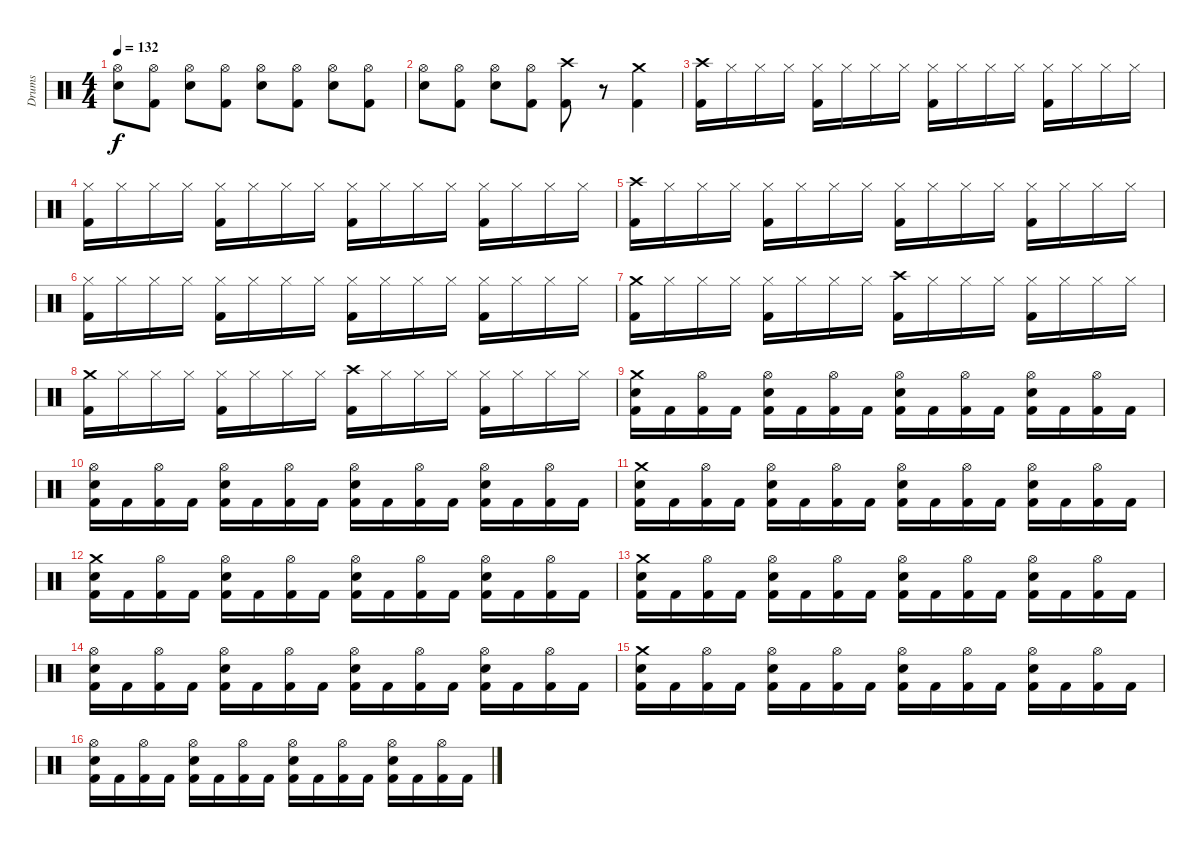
\track ("Drums" "Drums") {instrument percussion}
\staff {score}
\articulation defaults
\ts (4 4)
\tempo 132
\clef neutral
\ks c
("Hi-Hat (open)" "Electric Snare (hit)").8{dy f} ("Hi-Hat (open)" "Kick (hit) 2").8 ("Hi-Hat (open)" "Electric Snare (hit)").8 ("Hi-Hat (open)" "Kick (hit) 2").8 ("Hi-Hat (open)" "Electric Snare (hit)").8 ("Hi-Hat (open)" "Kick (hit) 2").8 ("Hi-Hat (open)" "Electric Snare (hit)").8 ("Hi-Hat (open)" "Kick (hit) 2").8 |
("Hi-Hat (open)" "Electric Snare (hit)").8 ("Hi-Hat (open)" "Kick (hit) 2").8 ("Hi-Hat (open)" "Electric Snare (hit)").8 ("Hi-Hat (open)" "Kick (hit) 2").8 ("Crash high (hit)" "Kick (hit) 2").8 r.8 ("Crash medium (hit)" "Kick (hit) 2").4 |
("Crash high (hit)" "Kick (hit) 2").16 "Hi-Hat (closed)".16 "Hi-Hat (closed)".16 "Hi-Hat (closed)".16 ("Hi-Hat (closed)" "Kick (hit) 2").16 "Hi-Hat (closed)".16 "Hi-Hat (closed)".16 "Hi-Hat (closed)".16 ("Hi-Hat (closed)" "Kick (hit) 2").16 "Hi-Hat (closed)".16 "Hi-Hat (closed)".16 "Hi-Hat (closed)".16 ("Hi-Hat (closed)" "Kick (hit) 2").16 "Hi-Hat (closed)".16 "Hi-Hat (closed)".16 "Hi-Hat (closed)".16 |
("Hi-Hat (closed)" "Kick (hit) 2").16 "Hi-Hat (closed)".16 "Hi-Hat (closed)".16 "Hi-Hat (closed)".16 ("Hi-Hat (closed)" "Kick (hit) 2").16 "Hi-Hat (closed)".16 "Hi-Hat (closed)".16 "Hi-Hat (closed)".16 ("Hi-Hat (closed)" "Kick (hit) 2").16 "Hi-Hat (closed)".16 "Hi-Hat (closed)".16 "Hi-Hat (closed)".16 ("Hi-Hat (closed)" "Kick (hit) 2").16 "Hi-Hat (closed)".16 "Hi-Hat (closed)".16 "Hi-Hat (closed)".16 |
("Crash high (hit)" "Kick (hit) 2").16 "Hi-Hat (closed)".16 "Hi-Hat (closed)".16 "Hi-Hat (closed)".16 ("Hi-Hat (closed)" "Kick (hit) 2").16 "Hi-Hat (closed)".16 "Hi-Hat (closed)".16 "Hi-Hat (closed)".16 ("Hi-Hat (closed)" "Kick (hit) 2").16 "Hi-Hat (closed)".16 "Hi-Hat (closed)".16 "Hi-Hat (closed)".16 ("Hi-Hat (closed)" "Kick (hit) 2").16 "Hi-Hat (closed)".16 "Hi-Hat (closed)".16 "Hi-Hat (closed)".16 |
("Hi-Hat (closed)" "Kick (hit) 2").16 "Hi-Hat (closed)".16 "Hi-Hat (closed)".16 "Hi-Hat (closed)".16 ("Hi-Hat (closed)" "Kick (hit) 2").16 "Hi-Hat (closed)".16 "Hi-Hat (closed)".16 "Hi-Hat (closed)".16 ("Hi-Hat (closed)" "Kick (hit) 2").16 "Hi-Hat (closed)".16 "Hi-Hat (closed)".16 "Hi-Hat (closed)".16 ("Hi-Hat (closed)" "Kick (hit) 2").16 "Hi-Hat (closed)".16 "Hi-Hat (closed)".16 "Hi-Hat (closed)".16 |
("Crash medium (hit)" "Kick (hit) 2").16 "Hi-Hat (closed)".16 "Hi-Hat (closed)".16 "Hi-Hat (closed)".16 ("Hi-Hat (closed)" "Kick (hit) 2").16 "Hi-Hat (closed)".16 "Hi-Hat (closed)".16 "Hi-Hat (closed)".16 ("Crash high (hit)" "Kick (hit) 2").16 "Hi-Hat (closed)".16 "Hi-Hat (closed)".16 "Hi-Hat (closed)".16 ("Hi-Hat (closed)" "Kick (hit) 2").16 "Hi-Hat (closed)".16 "Hi-Hat (closed)".16 "Hi-Hat (closed)".16 |
("Crash medium (hit)" "Kick (hit) 2").16 "Hi-Hat (closed)".16 "Hi-Hat (closed)".16 "Hi-Hat (closed)".16 ("Hi-Hat (closed)" "Kick (hit) 2").16 "Hi-Hat (closed)".16 "Hi-Hat (closed)".16 "Hi-Hat (closed)".16 ("Crash high (hit)" "Kick (hit) 2").16 "Hi-Hat (closed)".16 "Hi-Hat (closed)".16 "Hi-Hat (closed)".16 ("Hi-Hat (closed)" "Kick (hit) 2").16 "Hi-Hat (closed)".16 "Hi-Hat (closed)".16 "Hi-Hat (closed)".16 |
("Crash medium (hit)" "Electric Snare (hit)" "Kick (hit) 2").16 "Kick (hit) 2".16 ("Hi-Hat (open)" "Kick (hit) 2").16 "Kick (hit) 2".16 ("Hi-Hat (open)" "Electric Snare (hit)" "Kick (hit) 2").16 "Kick (hit) 2".16 ("Hi-Hat (open)" "Kick (hit) 2").16 "Kick (hit) 2".16 ("Hi-Hat (open)" "Electric Snare (hit)" "Kick (hit) 2").16 "Kick (hit) 2".16 ("Hi-Hat (open)" "Kick (hit) 2").16 "Kick (hit) 2".16 ("Hi-Hat (open)" "Electric Snare (hit)" "Kick (hit) 2").16 "Kick (hit) 2".16 ("Hi-Hat (open)" "Kick (hit) 2").16 "Kick (hit) 2".16 |
("Hi-Hat (open)" "Electric Snare (hit)" "Kick (hit) 2").16 "Kick (hit) 2".16 ("Hi-Hat (open)" "Kick (hit) 2").16 "Kick (hit) 2".16 ("Hi-Hat (open)" "Electric Snare (hit)" "Kick (hit) 2").16 "Kick (hit) 2".16 ("Hi-Hat (open)" "Kick (hit) 2").16 "Kick (hit) 2".16 ("Hi-Hat (open)" "Electric Snare (hit)" "Kick (hit) 2").16 "Kick (hit) 2".16 ("Hi-Hat (open)" "Kick (hit) 2").16 "Kick (hit) 2".16 ("Hi-Hat (open)" "Electric Snare (hit)" "Kick (hit) 2").16 "Kick (hit) 2".16 ("Hi-Hat (open)" "Kick (hit) 2").16 "Kick (hit) 2".16 |
("Crash medium (hit)" "Electric Snare (hit)" "Kick (hit) 2").16 "Kick (hit) 2".16 ("Hi-Hat (open)" "Kick (hit) 2").16 "Kick (hit) 2".16 ("Hi-Hat (open)" "Electric Snare (hit)" "Kick (hit) 2").16 "Kick (hit) 2".16 ("Hi-Hat (open)" "Kick (hit) 2").16 "Kick (hit) 2".16 ("Hi-Hat (open)" "Electric Snare (hit)" "Kick (hit) 2").16 "Kick (hit) 2".16 ("Hi-Hat (open)" "Kick (hit) 2").16 "Kick (hit) 2".16 ("Hi-Hat (open)" "Electric Snare (hit)" "Kick (hit) 2").16 "Kick (hit) 2".16 ("Hi-Hat (open)" "Kick (hit) 2").16 "Kick (hit) 2".16 |
("Crash medium (hit)" "Electric Snare (hit)" "Kick (hit) 2").16 "Kick (hit) 2".16 ("Hi-Hat (open)" "Kick (hit) 2").16 "Kick (hit) 2".16 ("Hi-Hat (open)" "Electric Snare (hit)" "Kick (hit) 2").16 "Kick (hit) 2".16 ("Hi-Hat (open)" "Kick (hit) 2").16 "Kick (hit) 2".16 ("Hi-Hat (open)" "Electric Snare (hit)" "Kick (hit) 2").16 "Kick (hit) 2".16 ("Hi-Hat (open)" "Kick (hit) 2").16 "Kick (hit) 2".16 ("Hi-Hat (open)" "Electric Snare (hit)" "Kick (hit) 2").16 "Kick (hit) 2".16 ("Hi-Hat (open)" "Kick (hit) 2").16 "Kick (hit) 2".16 |
("Crash medium (hit)" "Electric Snare (hit)" "Kick (hit) 2").16 "Kick (hit) 2".16 ("Hi-Hat (open)" "Kick (hit) 2").16 "Kick (hit) 2".16 ("Hi-Hat (open)" "Electric Snare (hit)" "Kick (hit) 2").16 "Kick (hit) 2".16 ("Hi-Hat (open)" "Kick (hit) 2").16 "Kick (hit) 2".16 ("Hi-Hat (open)" "Electric Snare (hit)" "Kick (hit) 2").16 "Kick (hit) 2".16 ("Hi-Hat (open)" "Kick (hit) 2").16 "Kick (hit) 2".16 ("Hi-Hat (open)" "Electric Snare (hit)" "Kick (hit) 2").16 "Kick (hit) 2".16 ("Hi-Hat (open)" "Kick (hit) 2").16 "Kick (hit) 2".16 |
("Hi-Hat (open)" "Electric Snare (hit)" "Kick (hit) 2").16 "Kick (hit) 2".16 ("Hi-Hat (open)" "Kick (hit) 2").16 "Kick (hit) 2".16 ("Hi-Hat (open)" "Electric Snare (hit)" "Kick (hit) 2").16 "Kick (hit) 2".16 ("Hi-Hat (open)" "Kick (hit) 2").16 "Kick (hit) 2".16 ("Hi-Hat (open)" "Electric Snare (hit)" "Kick (hit) 2").16 "Kick (hit) 2".16 ("Hi-Hat (open)" "Kick (hit) 2").16 "Kick (hit) 2".16 ("Hi-Hat (open)" "Electric Snare (hit)" "Kick (hit) 2").16 "Kick (hit) 2".16 ("Hi-Hat (open)" "Kick (hit) 2").16 "Kick (hit) 2".16 |
("Crash medium (hit)" "Electric Snare (hit)" "Kick (hit) 2").16 "Kick (hit) 2".16 ("Hi-Hat (open)" "Kick (hit) 2").16 "Kick (hit) 2".16 ("Hi-Hat (open)" "Electric Snare (hit)" "Kick (hit) 2").16 "Kick (hit) 2".16 ("Hi-Hat (open)" "Kick (hit) 2").16 "Kick (hit) 2".16 ("Hi-Hat (open)" "Electric Snare (hit)" "Kick (hit) 2").16 "Kick (hit) 2".16 ("Hi-Hat (open)" "Kick (hit) 2").16 "Kick (hit) 2".16 ("Hi-Hat (open)" "Electric Snare (hit)" "Kick (hit) 2").16 "Kick (hit) 2".16 ("Hi-Hat (open)" "Kick (hit) 2").16 "Kick (hit) 2".16 |
("Hi-Hat (open)" "Electric Snare (hit)" "Kick (hit) 2").16 "Kick (hit) 2".16 ("Hi-Hat (open)" "Kick (hit) 2").16 "Kick (hit) 2".16 ("Hi-Hat (open)" "Electric Snare (hit)" "Kick (hit) 2").16 "Kick (hit) 2".16 ("Hi-Hat (open)" "Kick (hit) 2").16 "Kick (hit) 2".16 ("Hi-Hat (open)" "Electric Snare (hit)" "Kick (hit) 2").16 "Kick (hit) 2".16 ("Hi-Hat (open)" "Kick (hit) 2").16 "Kick (hit) 2".16 ("Hi-Hat (open)" "Electric Snare (hit)" "Kick (hit) 2").16 "Kick (hit) 2".16 ("Hi-Hat (open)" "Kick (hit) 2").16 "Kick (hit) 2".16
